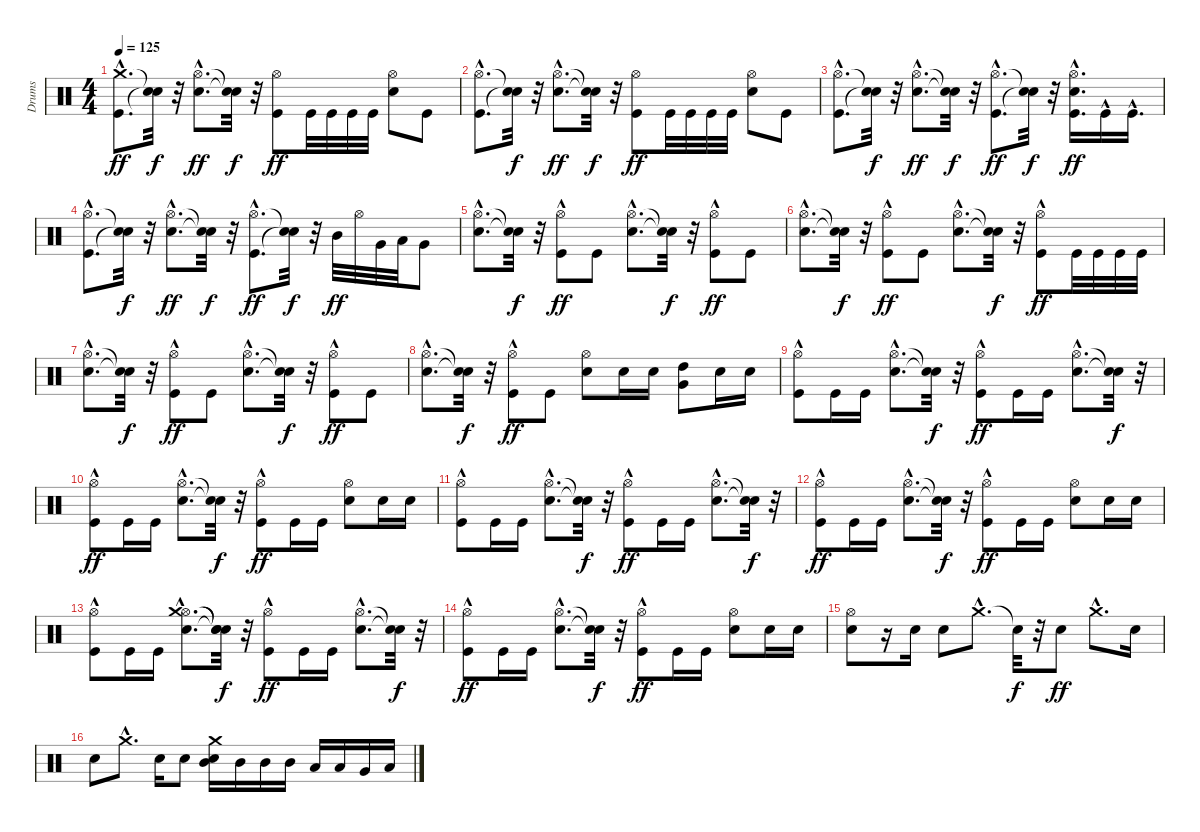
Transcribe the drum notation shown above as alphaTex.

\track ("Drums" "Drums") {instrument percussion}
\staff {score}
\articulation defaults
\ts (4 4)
\tempo 125
\clef neutral
\ks c
("Kick (hit)"{hac} "Crash medium (hit)"{hac}).8{d dy ff} ("Snare (hit)"{t} "Snare (hit)"{t}).32{dy f} r.32 ("Electric Snare (hit)"{hac} "Hi-Hat (open)"{hac}).8{d dy ff} ("Snare (hit)"{t} "Snare (hit)"{t}).32{dy f} r.32 ("Kick (hit)" "Hi-Hat (open)").8{dy ff} "Kick (hit)".32 "Kick (hit)".32 "Kick (hit)".32 "Kick (hit)".32 ("Electric Snare (hit)" "Hi-Hat (open)").8 "Kick (hit)".8 |
("Kick (hit)"{hac} "Hi-Hat (open)"{hac}).8{d} ("Snare (hit)"{t} "Snare (hit)"{t}).32{dy f} r.32 ("Electric Snare (hit)"{hac} "Hi-Hat (open)"{hac}).8{d dy ff} ("Snare (hit)"{t} "Snare (hit)"{t}).32{dy f} r.32 ("Kick (hit)" "Hi-Hat (open)").8{dy ff} "Kick (hit)".32 "Kick (hit)".32 "Kick (hit)".32 "Kick (hit)".32 ("Electric Snare (hit)" "Hi-Hat (open)").8 "Kick (hit)".8 |
("Kick (hit)"{hac} "Hi-Hat (open)"{hac}).8{d} ("Snare (hit)"{t} "Snare (hit)"{t}).32{dy f} r.32 ("Electric Snare (hit)"{hac} "Hi-Hat (open)"{hac}).8{d dy ff} ("Snare (hit)"{t} "Snare (hit)"{t}).32{dy f} r.32 ("Kick (hit)"{hac} "Hi-Hat (open)"{hac}).8{d dy ff} ("Snare (hit)"{t} "Snare (hit)"{t}).32{dy f} r.32 ("Kick (hit)"{hac} "Electric Snare (hit)"{hac} "Hi-Hat (open)"{hac}).16{d dy ff} "Kick (hit)"{hac}.16 "Kick (hit)"{hac}.16{d} |
("Kick (hit)"{hac} "Hi-Hat (open)"{hac}).8{d} ("Snare (hit)"{t} "Snare (hit)"{t}).32{dy f} r.32 ("Electric Snare (hit)"{hac} "Hi-Hat (open)"{hac}).8{d dy ff} ("Snare (hit)"{t} "Snare (hit)"{t}).32{dy f} r.32 ("Kick (hit)"{hac} "Hi-Hat (open)"{hac}).8{d dy ff} ("Snare (hit)"{t} "Snare (hit)"{t}).32{dy f} r.32 "Mid Tom (hit)".32{dy ff} "Hi-Hat (open)".32 "Very Low Tom (hit)".32 "Low Floor Tom (hit)".32 "Very Low Tom (hit)".8 |
("Electric Snare (hit)"{hac} "Hi-Hat (open)"{hac}).8{d} ("Snare (hit)"{t} "Snare (hit)"{t}).32{dy f} r.32 ("Kick (hit)" "Hi-Hat (open)"{hac}).8{dy ff} "Kick (hit)".8 ("Electric Snare (hit)"{hac} "Hi-Hat (open)"{hac}).8{d} ("Snare (hit)"{t} "Snare (hit)"{t}).32{dy f} r.32 ("Kick (hit)" "Hi-Hat (open)"{hac}).8{dy ff} "Kick (hit)".8 |
("Electric Snare (hit)"{hac} "Hi-Hat (open)"{hac}).8{d} ("Snare (hit)"{t} "Snare (hit)"{t}).32{dy f} r.32 ("Kick (hit)" "Hi-Hat (open)"{hac}).8{dy ff} "Kick (hit)".8 ("Electric Snare (hit)"{hac} "Hi-Hat (open)"{hac}).8{d} ("Snare (hit)"{t} "Snare (hit)"{t}).32{dy f} r.32 ("Kick (hit)" "Hi-Hat (open)"{hac}).8{dy ff} "Kick (hit)".32 "Kick (hit)".32 "Kick (hit)".32 "Kick (hit)".32 |
("Electric Snare (hit)"{hac} "Hi-Hat (open)"{hac}).8{d} ("Snare (hit)"{t} "Snare (hit)"{t}).32{dy f} r.32 ("Kick (hit)" "Hi-Hat (open)"{hac}).8{dy ff} "Kick (hit)".8 ("Electric Snare (hit)"{hac} "Hi-Hat (open)"{hac}).8{d} ("Snare (hit)"{t} "Snare (hit)"{t}).32{dy f} r.32 ("Kick (hit)" "Hi-Hat (open)"{hac}).8{dy ff} "Kick (hit)".8 |
("Electric Snare (hit)"{hac} "Hi-Hat (open)"{hac}).8{d} ("Snare (hit)"{t} "Snare (hit)"{t}).32{dy f} r.32 ("Kick (hit)" "Hi-Hat (open)"{hac}).8{dy ff} "Kick (hit)".8 ("Electric Snare (hit)" "Hi-Hat (open)").8 "Electric Snare (hit)".16 "Electric Snare (hit)".16 ("Very Low Tom (hit)" "High Tom (hit)").8 "Electric Snare (hit)".16 "Electric Snare (hit)".16 |
("Kick (hit)" "Hi-Hat (open)"{hac}).8 "Kick (hit)".16 "Kick (hit)".16 ("Electric Snare (hit)"{hac} "Hi-Hat (open)"{hac}).8{d} ("Snare (hit)"{t} "Snare (hit)"{t}).32{dy f} r.32 ("Kick (hit)" "Hi-Hat (open)"{hac}).8{dy ff} "Kick (hit)".16 "Kick (hit)".16 ("Electric Snare (hit)"{hac} "Hi-Hat (open)"{hac}).8{d} ("Snare (hit)"{t} "Snare (hit)"{t}).32{dy f} r.32 |
("Kick (hit)" "Hi-Hat (open)"{hac}).8{dy ff} "Kick (hit)".16 "Kick (hit)".16 ("Electric Snare (hit)"{hac} "Hi-Hat (open)"{hac}).8{d} ("Snare (hit)"{t} "Snare (hit)"{t}).32{dy f} r.32 ("Kick (hit)" "Hi-Hat (open)"{hac}).8{dy ff} "Kick (hit)".16 "Kick (hit)".16 ("Electric Snare (hit)" "Hi-Hat (open)").8 "Electric Snare (hit)".16 "Electric Snare (hit)".16 |
("Kick (hit)" "Hi-Hat (open)"{hac}).8 "Kick (hit)".16 "Kick (hit)".16 ("Electric Snare (hit)"{hac} "Hi-Hat (open)"{hac}).8{d} ("Snare (hit)"{t} "Snare (hit)"{t}).32{dy f} r.32 ("Kick (hit)" "Hi-Hat (open)"{hac}).8{dy ff} "Kick (hit)".16 "Kick (hit)".16 ("Electric Snare (hit)"{hac} "Hi-Hat (open)"{hac}).8{d} ("Snare (hit)"{t} "Snare (hit)"{t}).32{dy f} r.32 |
("Kick (hit)" "Hi-Hat (open)"{hac}).8{dy ff} "Kick (hit)".16 "Kick (hit)".16 ("Electric Snare (hit)"{hac} "Hi-Hat (open)"{hac}).8{d} ("Snare (hit)"{t} "Snare (hit)"{t}).32{dy f} r.32 ("Kick (hit)" "Hi-Hat (open)"{hac}).8{dy ff} "Kick (hit)".16 "Kick (hit)".16 ("Electric Snare (hit)" "Hi-Hat (open)").8 "Electric Snare (hit)".16 "Electric Snare (hit)".16 |
("Kick (hit)" "Hi-Hat (open)"{hac}).8 "Kick (hit)".16 "Kick (hit)".16 ("Electric Snare (hit)"{hac} "Hi-Hat (open)"{hac} "Crash medium (hit)"{hac}).8{d} ("Snare (hit)"{t} "Snare (hit)"{t} "Snare (hit)"{t}).32{dy f} r.32 ("Kick (hit)" "Hi-Hat (open)"{hac}).8{dy ff} "Kick (hit)".16 "Kick (hit)".16 ("Electric Snare (hit)"{hac} "Hi-Hat (open)"{hac}).8{d} ("Snare (hit)"{t} "Snare (hit)"{t}).32{dy f} r.32 |
("Kick (hit)" "Hi-Hat (open)"{hac}).8{dy ff} "Kick (hit)".16 "Kick (hit)".16 ("Electric Snare (hit)"{hac} "Hi-Hat (open)"{hac}).8{d} ("Snare (hit)"{t} "Snare (hit)"{t}).32{dy f} r.32 ("Kick (hit)" "Hi-Hat (open)"{hac}).8{dy ff} "Kick (hit)".16 "Kick (hit)".16 ("Electric Snare (hit)" "Hi-Hat (open)").8 "Electric Snare (hit)".16 "Electric Snare (hit)".16 |
("Electric Snare (hit)" "Hi-Hat (open)").8 r.16 "Electric Snare (hit)".16 "Electric Snare (hit)".8 "Crash medium (hit)"{hac}.8{d} "Snare (hit)"{t}.32{dy f} r.32 "Electric Snare (hit)".8{dy ff} "Crash medium (hit)"{hac}.8{d} "Electric Snare (hit)".16 |
"Electric Snare (hit)".8 "Crash medium (hit)"{hac}.8{d} "Electric Snare (hit)".16 "Electric Snare (hit)".8 ("Electric Snare (hit)" "Mid Tom (hit)" "Crash medium (hit)").16 "Mid Tom (hit)".16 "Mid Tom (hit)".16 "Mid Tom (hit)".16 "Low Tom (hit)".16 "Low Tom (hit)".16 "Very Low Tom (hit)".16 "Low Floor Tom (hit)".16
